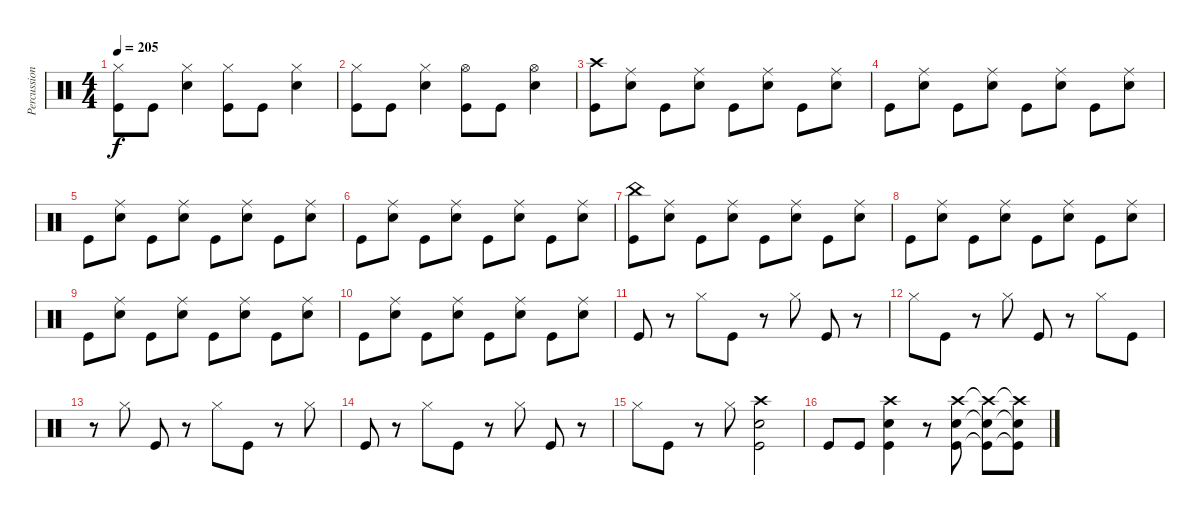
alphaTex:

\track ("Percussion" "Percussion") {instrument percussion}
\staff {score}
\articulation defaults
\ts (4 4)
\tempo 205
\clef neutral
\ks c
("Kick (hit)" "Hi-Hat (closed)").8{dy f} "Kick (hit)".8 ("Snare (hit) 2" "Hi-Hat (closed)").4 ("Kick (hit)" "Hi-Hat (closed)").8 "Kick (hit)".8 ("Snare (hit) 2" "Hi-Hat (closed)").4 |
("Kick (hit)" "Hi-Hat (closed)").8 "Kick (hit)".8 ("Snare (hit) 2" "Hi-Hat (closed)").4 ("Kick (hit)" "Hi-Hat (open)").8 "Kick (hit)".8 ("Snare (hit) 2" "Hi-Hat (open)").4 |
("Kick (hit)" "Crash high (hit)").8 ("Snare (hit) 2" "Ride (middle)").8 "Kick (hit)".8 ("Snare (hit) 2" "Ride (middle)").8 "Kick (hit)".8 ("Snare (hit) 2" "Ride (middle)").8 "Kick (hit)".8 ("Snare (hit) 2" "Ride (middle)").8 |
"Kick (hit)".8 ("Snare (hit) 2" "Ride (middle)").8 "Kick (hit)".8 ("Snare (hit) 2" "Ride (middle)").8 "Kick (hit)".8 ("Snare (hit) 2" "Ride (middle)").8 "Kick (hit)".8 ("Snare (hit) 2" "Ride (middle)").8 |
"Kick (hit)".8 ("Snare (hit) 2" "Ride (middle)").8 "Kick (hit)".8 ("Snare (hit) 2" "Ride (middle)").8 "Kick (hit)".8 ("Snare (hit) 2" "Ride (middle)").8 "Kick (hit)".8 ("Snare (hit) 2" "Ride (middle)").8 |
"Kick (hit)".8 ("Snare (hit) 2" "Ride (middle)").8 "Kick (hit)".8 ("Snare (hit) 2" "Ride (middle)").8 "Kick (hit)".8 ("Snare (hit) 2" "Ride (middle)").8 "Kick (hit)".8 ("Snare (hit) 2" "Ride (middle)").8 |
("Kick (hit)" "China (hit)").8 ("Snare (hit) 2" "Ride (middle)").8 "Kick (hit)".8 ("Snare (hit) 2" "Ride (middle)").8 "Kick (hit)".8 ("Snare (hit) 2" "Ride (middle)").8 "Kick (hit)".8 ("Snare (hit) 2" "Ride (middle)").8 |
"Kick (hit)".8 ("Snare (hit) 2" "Ride (middle)").8 "Kick (hit)".8 ("Snare (hit) 2" "Ride (middle)").8 "Kick (hit)".8 ("Snare (hit) 2" "Ride (middle)").8 "Kick (hit)".8 ("Snare (hit) 2" "Ride (middle)").8 |
"Kick (hit)".8 ("Snare (hit) 2" "Ride (middle)").8 "Kick (hit)".8 ("Snare (hit) 2" "Ride (middle)").8 "Kick (hit)".8 ("Snare (hit) 2" "Ride (middle)").8 "Kick (hit)".8 ("Snare (hit) 2" "Ride (middle)").8 |
"Kick (hit)".8 ("Snare (hit) 2" "Ride (middle)").8 "Kick (hit)".8 ("Snare (hit) 2" "Ride (middle)").8 "Kick (hit)".8 ("Snare (hit) 2" "Ride (middle)").8 "Kick (hit)".8 ("Snare (hit) 2" "Ride (middle)").8 |
"Kick (hit)".8 r.8 "Hi-Hat (closed)".8 "Kick (hit)".8 r.8 "Hi-Hat (closed)".8 "Kick (hit)".8 r.8 |
"Hi-Hat (closed)".8 "Kick (hit)".8 r.8 "Hi-Hat (closed)".8 "Kick (hit)".8 r.8 "Hi-Hat (closed)".8 "Kick (hit)".8 |
r.8 "Hi-Hat (closed)".8 "Kick (hit)".8 r.8 "Hi-Hat (closed)".8 "Kick (hit)".8 r.8 "Hi-Hat (closed)".8 |
"Kick (hit)".8 r.8 "Hi-Hat (closed)".8 "Kick (hit)".8 r.8 "Hi-Hat (closed)".8 "Kick (hit)".8 r.8 |
"Hi-Hat (closed)".8 "Kick (hit)".8 r.8 "Hi-Hat (closed)".8 ("Kick (hit)" "Crash high (hit)" "Snare (hit) 2").2 |
"Kick (hit)".8 "Kick (hit)".8 ("Kick (hit)" "Crash high (hit)" "Snare (hit) 2").4 r.8 ("Kick (hit)" "Crash high (hit)" "Snare (hit) 2").8 ("Kick (hit)"{t} "Crash high (hit)"{t} "Snare (hit) 2"{t}).8 ("Kick (hit)"{t} "Crash high (hit)"{t} "Snare (hit) 2"{t}).8
